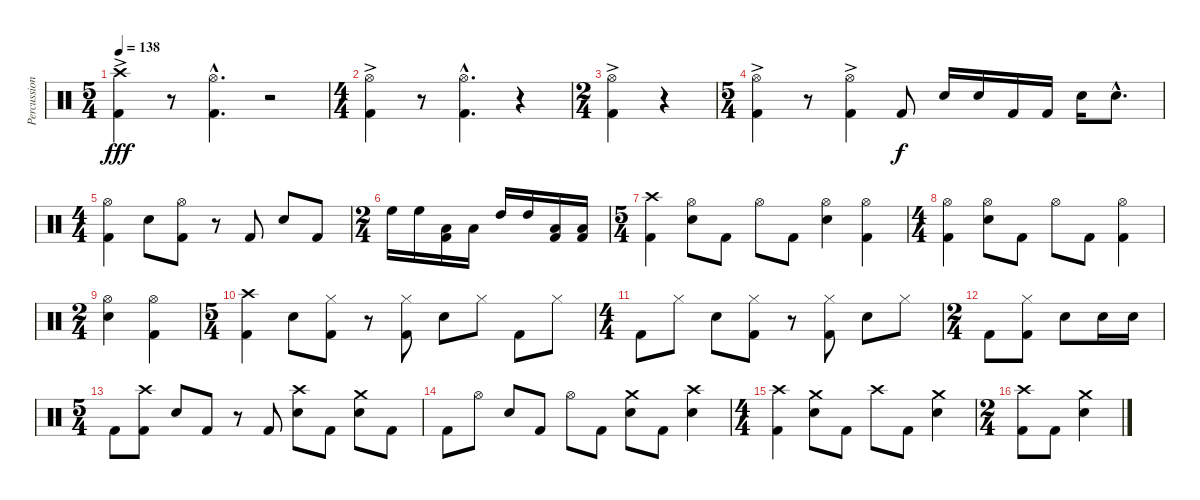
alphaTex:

\track ("Percussion" "Percussion") {instrument percussion}
\staff {score}
\articulation defaults
\ts (5 4)
\tempo 138
\clef neutral
\ks c
("Kick (hit) 2" "Crash high (hit)"{ac}).4{dy fff} r.8 ("Kick (hit) 2"{hac} "Hi-Hat (open)"{hac}).4{d} r.2 |
\ts (4 4)
("Kick (hit) 2" "Hi-Hat (open)"{ac}).4 r.8 ("Kick (hit) 2"{hac} "Hi-Hat (open)"{hac}).4{d} r.4 |
\ts (2 4)
("Kick (hit) 2" "Hi-Hat (open)"{ac}).4 r.4 |
\ts (5 4)
("Kick (hit) 2" "Hi-Hat (open)"{ac}).4 r.8 ("Kick (hit) 2" "Hi-Hat (open)"{ac}).4 "Kick (hit) 2".8{dy f} "Snare (hit) 2".16 "Snare (hit) 2".16 "Kick (hit) 2".16 "Kick (hit) 2".16 "Snare (hit) 2".16 "Snare (hit) 2"{hac}.8{d} |
\ts (4 4)
("Kick (hit) 2" "Hi-Hat (open)").4 "Snare (hit) 2".8 ("Kick (hit) 2" "Hi-Hat (open)").8 r.8 "Kick (hit) 2".8 "Snare (hit) 2".8 "Kick (hit) 2".8 |
\ts (2 4)
"High Floor Tom (hit)".16 "High Floor Tom (hit)".16 ("Kick (hit) 2" "Low Tom (hit)").16 "Low Tom (hit)".16 "High Tom (hit)".16 "High Tom (hit)".16 ("Kick (hit) 2" "Low Floor Tom (hit)").16 ("Kick (hit) 2" "Low Floor Tom (hit)").16 |
\ts (5 4)
("Kick (hit) 2" "Crash high (hit)").4 ("Snare (hit) 2" "Hi-Hat (open)").8 "Kick (hit) 2".8 "Hi-Hat (open)".8 "Kick (hit) 2".8 ("Snare (hit) 2" "Hi-Hat (open)").4 ("Kick (hit) 2" "Hi-Hat (open)").4 |
\ts (4 4)
("Kick (hit) 2" "Hi-Hat (open)").4 ("Snare (hit) 2" "Hi-Hat (open)").8 "Kick (hit) 2".8 "Hi-Hat (open)".8 "Kick (hit) 2".8 ("Kick (hit) 2" "Hi-Hat (open)").4 |
\ts (2 4)
("Snare (hit) 2" "Hi-Hat (open)").4 ("Kick (hit) 2" "Hi-Hat (open)").4 |
\ts (5 4)
("Kick (hit) 2" "Crash high (hit)").4 "Snare (hit) 2".8 ("Kick (hit) 2" "Hi-Hat (closed)").8 r.8 ("Kick (hit) 2" "Hi-Hat (closed)").8 "Snare (hit) 2".8 "Hi-Hat (closed)".8 "Kick (hit) 2".8 "Hi-Hat (closed)".8 |
\ts (4 4)
"Kick (hit) 2".8 "Hi-Hat (closed)".8 "Snare (hit) 2".8 ("Kick (hit) 2" "Hi-Hat (closed)").8 r.8 ("Kick (hit) 2" "Hi-Hat (closed)").8 "Snare (hit) 2".8 "Hi-Hat (closed)".8 |
\ts (2 4)
"Kick (hit) 2".8 ("Kick (hit) 2" "Hi-Hat (closed)").8 "Snare (hit) 2".8 "Snare (hit) 2".16 "Snare (hit) 2".16 |
\ts (5 4)
"Kick (hit) 2".8 ("Kick (hit) 2" "Crash high (hit)").8 "Snare (hit) 2".8 "Kick (hit) 2".8 r.8 "Kick (hit) 2".8 ("Snare (hit) 2" "Crash high (hit)").8 "Kick (hit) 2".8 ("Snare (hit) 2" "Crash medium (hit)").8 "Kick (hit) 2".8 |
"Kick (hit) 2".8 "Hi-Hat (open)".8 "Snare (hit) 2".8 "Kick (hit) 2".8 "Hi-Hat (open)".8 "Kick (hit) 2".8 ("Snare (hit) 2" "Crash medium (hit)").8 "Kick (hit) 2".8 ("Snare (hit) 2" "Crash high (hit)").4 |
\ts (4 4)
("Kick (hit) 2" "Crash high (hit)").4 ("Snare (hit) 2" "Crash medium (hit)").8 "Kick (hit) 2".8 "Crash high (hit)".8 "Kick (hit) 2".8 ("Snare (hit) 2" "Crash medium (hit)").4 |
\ts (2 4)
("Kick (hit) 2" "Crash high (hit)").8 "Kick (hit) 2".8 ("Snare (hit) 2" "Crash medium (hit)").4
